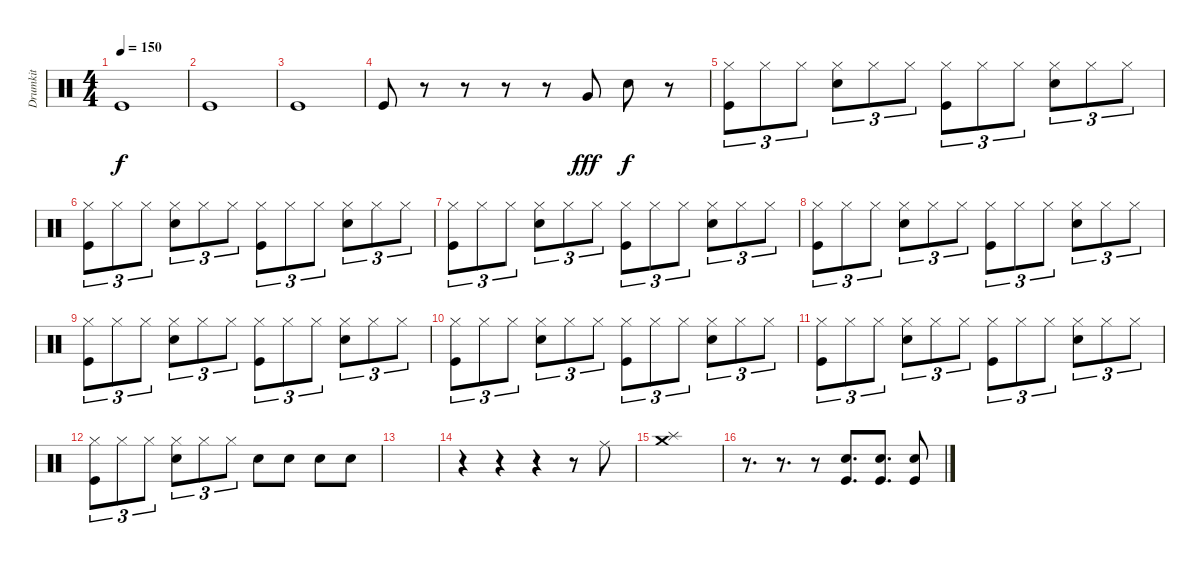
\track ("Drumkit" "Drumkit") {instrument percussion}
\staff {score}
\articulation defaults
\ts (4 4)
\tempo 150
\clef neutral
\ks c "Kick (hit)".1{dy f}
|
"Kick (hit)".1 |
"Kick (hit)".1 |
"Kick (hit)".8 r.8 r.8 r.8 r.8 "Very Low Tom (hit)".8{dy fff} "Snare (hit) 2".8{dy f} r.8 |
("Kick (hit)" "Hi-Hat (closed)").8{tu (3 2)} "Hi-Hat (closed)".8{tu (3 2)} "Hi-Hat (closed)".8{tu (3 2)} ("Hi-Hat (closed)" "Snare (hit) 2").8{tu (3 2)} "Hi-Hat (closed)".8{tu (3 2)} "Hi-Hat (closed)".8{tu (3 2)} ("Hi-Hat (closed)" "Kick (hit)").8{tu (3 2)} "Hi-Hat (closed)".8{tu (3 2)} "Hi-Hat (closed)".8{tu (3 2)} ("Hi-Hat (closed)" "Snare (hit) 2").8{tu (3 2)} "Hi-Hat (closed)".8{tu (3 2)} "Hi-Hat (closed)".8{tu (3 2)} |
("Kick (hit)" "Hi-Hat (closed)").8{tu (3 2)} "Hi-Hat (closed)".8{tu (3 2)} "Hi-Hat (closed)".8{tu (3 2)} ("Hi-Hat (closed)" "Snare (hit) 2").8{tu (3 2)} "Hi-Hat (closed)".8{tu (3 2)} "Hi-Hat (closed)".8{tu (3 2)} ("Hi-Hat (closed)" "Kick (hit)").8{tu (3 2)} "Hi-Hat (closed)".8{tu (3 2)} "Hi-Hat (closed)".8{tu (3 2)} ("Hi-Hat (closed)" "Snare (hit) 2").8{tu (3 2)} "Hi-Hat (closed)".8{tu (3 2)} "Hi-Hat (closed)".8{tu (3 2)} |
("Kick (hit)" "Hi-Hat (closed)").8{tu (3 2)} "Hi-Hat (closed)".8{tu (3 2)} "Hi-Hat (closed)".8{tu (3 2)} ("Hi-Hat (closed)" "Snare (hit) 2").8{tu (3 2)} "Hi-Hat (closed)".8{tu (3 2)} "Hi-Hat (closed)".8{tu (3 2)} ("Hi-Hat (closed)" "Kick (hit)").8{tu (3 2)} "Hi-Hat (closed)".8{tu (3 2)} "Hi-Hat (closed)".8{tu (3 2)} ("Hi-Hat (closed)" "Snare (hit) 2").8{tu (3 2)} "Hi-Hat (closed)".8{tu (3 2)} "Hi-Hat (closed)".8{tu (3 2)} |
("Kick (hit)" "Hi-Hat (closed)").8{tu (3 2)} "Hi-Hat (closed)".8{tu (3 2)} "Hi-Hat (closed)".8{tu (3 2)} ("Hi-Hat (closed)" "Snare (hit) 2").8{tu (3 2)} "Hi-Hat (closed)".8{tu (3 2)} "Hi-Hat (closed)".8{tu (3 2)} ("Hi-Hat (closed)" "Kick (hit)").8{tu (3 2)} "Hi-Hat (closed)".8{tu (3 2)} "Hi-Hat (closed)".8{tu (3 2)} ("Hi-Hat (closed)" "Snare (hit) 2").8{tu (3 2)} "Hi-Hat (closed)".8{tu (3 2)} "Hi-Hat (closed)".8{tu (3 2)} |
("Kick (hit)" "Hi-Hat (closed)").8{tu (3 2)} "Hi-Hat (closed)".8{tu (3 2)} "Hi-Hat (closed)".8{tu (3 2)} ("Hi-Hat (closed)" "Snare (hit) 2").8{tu (3 2)} "Hi-Hat (closed)".8{tu (3 2)} "Hi-Hat (closed)".8{tu (3 2)} ("Hi-Hat (closed)" "Kick (hit)").8{tu (3 2)} "Hi-Hat (closed)".8{tu (3 2)} "Hi-Hat (closed)".8{tu (3 2)} ("Hi-Hat (closed)" "Snare (hit) 2").8{tu (3 2)} "Hi-Hat (closed)".8{tu (3 2)} "Hi-Hat (closed)".8{tu (3 2)} |
("Kick (hit)" "Hi-Hat (closed)").8{tu (3 2)} "Hi-Hat (closed)".8{tu (3 2)} "Hi-Hat (closed)".8{tu (3 2)} ("Hi-Hat (closed)" "Snare (hit) 2").8{tu (3 2)} "Hi-Hat (closed)".8{tu (3 2)} "Hi-Hat (closed)".8{tu (3 2)} ("Hi-Hat (closed)" "Kick (hit)").8{tu (3 2)} "Hi-Hat (closed)".8{tu (3 2)} "Hi-Hat (closed)".8{tu (3 2)} ("Hi-Hat (closed)" "Snare (hit) 2").8{tu (3 2)} "Hi-Hat (closed)".8{tu (3 2)} "Hi-Hat (closed)".8{tu (3 2)} |
("Kick (hit)" "Hi-Hat (closed)").8{tu (3 2)} "Hi-Hat (closed)".8{tu (3 2)} "Hi-Hat (closed)".8{tu (3 2)} ("Hi-Hat (closed)" "Snare (hit) 2").8{tu (3 2)} "Hi-Hat (closed)".8{tu (3 2)} "Hi-Hat (closed)".8{tu (3 2)} ("Hi-Hat (closed)" "Kick (hit)").8{tu (3 2)} "Hi-Hat (closed)".8{tu (3 2)} "Hi-Hat (closed)".8{tu (3 2)} ("Hi-Hat (closed)" "Snare (hit) 2").8{tu (3 2)} "Hi-Hat (closed)".8{tu (3 2)} "Hi-Hat (closed)".8{tu (3 2)} |
("Kick (hit)" "Hi-Hat (closed)").8{tu (3 2)} "Hi-Hat (closed)".8{tu (3 2)} "Hi-Hat (closed)".8{tu (3 2)} ("Hi-Hat (closed)" "Snare (hit) 2").8{tu (3 2)} "Hi-Hat (closed)".8{tu (3 2)} "Hi-Hat (closed)".8{tu (3 2)} "Snare (hit) 2".8 "Snare (hit) 2".8 "Snare (hit) 2".8 "Snare (hit) 2".8 |
|
r.4 r.4 r.4 r.8 "Ride (middle)".8 |
("Splash (hit)" "Crash medium (hit)").1 |
r.8{d} r.8{d} r.8 ("Snare (hit) 2" "Kick (hit)").8{d} ("Snare (hit) 2" "Kick (hit)").8{d} ("Snare (hit) 2" "Kick (hit)").8
